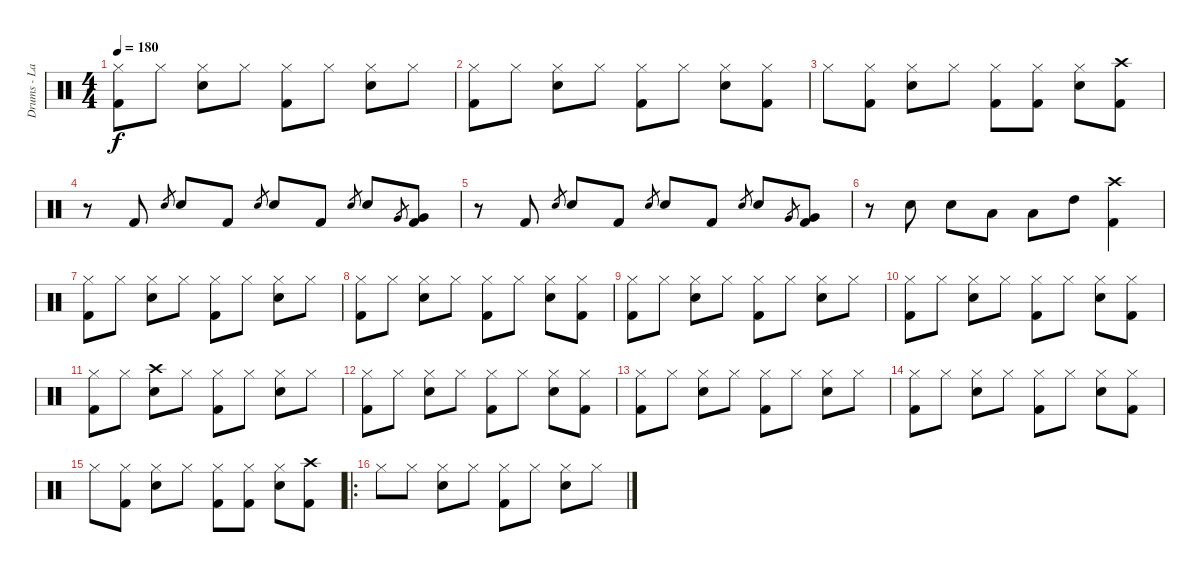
\track ("Drums - Lars" "Drums - La") {instrument percussion}
\staff {score}
\articulation defaults
\ts (4 4)
\tempo 180
\clef neutral
\ks c
("Hi-Hat (closed)" "Kick (hit) 2").8{dy f} "Hi-Hat (closed)".8 ("Hi-Hat (closed)" "Snare (hit) 2").8 "Hi-Hat (closed)".8 ("Hi-Hat (closed)" "Kick (hit) 2").8 "Hi-Hat (closed)".8 ("Hi-Hat (closed)" "Snare (hit) 2").8 "Hi-Hat (closed)".8 |
("Hi-Hat (closed)" "Kick (hit) 2").8 "Hi-Hat (closed)".8 ("Hi-Hat (closed)" "Snare (hit) 2").8 "Hi-Hat (closed)".8 ("Hi-Hat (closed)" "Kick (hit) 2").8 "Hi-Hat (closed)".8 ("Hi-Hat (closed)" "Snare (hit) 2").8 ("Hi-Hat (closed)" "Kick (hit) 2").8 |
"Hi-Hat (closed)".8 ("Hi-Hat (closed)" "Kick (hit) 2").8 ("Hi-Hat (closed)" "Snare (hit) 2").8 "Hi-Hat (closed)".8 ("Hi-Hat (closed)" "Kick (hit) 2").8 ("Hi-Hat (closed)" "Kick (hit) 2").8 ("Hi-Hat (closed)" "Snare (hit) 2").8 ("Crash high (hit)" "Kick (hit) 2").8 |
r.8 "Kick (hit) 2".8 "Snare (hit) 2".8{gr} "Snare (hit) 2".8 "Kick (hit) 2".8 "Snare (hit) 2".8{gr} "Snare (hit) 2".8 "Kick (hit) 2".8 "Snare (hit) 2".8{gr} "Snare (hit) 2".8 "Very Low Tom (hit)".8{gr} ("Very Low Tom (hit)" "Kick (hit) 2").8 |
r.8 "Kick (hit) 2".8 "Snare (hit) 2".8{gr} "Snare (hit) 2".8 "Kick (hit) 2".8 "Snare (hit) 2".8{gr} "Snare (hit) 2".8 "Kick (hit) 2".8 "Snare (hit) 2".8{gr} "Snare (hit) 2".8 "Very Low Tom (hit)".8{gr} ("Very Low Tom (hit)" "Kick (hit) 2").8 |
r.8 "Snare (hit) 2".8 "Snare (hit) 2".8 "Low Tom (hit)".8 "Low Tom (hit)".8 "High Tom (hit)".8 ("Crash high (hit)" "Kick (hit) 2").4 |
("Hi-Hat (closed)" "Kick (hit) 2").8 "Hi-Hat (closed)".8 ("Hi-Hat (closed)" "Snare (hit) 2").8 "Hi-Hat (closed)".8 ("Hi-Hat (closed)" "Kick (hit) 2").8 "Hi-Hat (closed)".8 ("Hi-Hat (closed)" "Snare (hit) 2").8 "Hi-Hat (closed)".8 |
("Hi-Hat (closed)" "Kick (hit) 2").8 "Hi-Hat (closed)".8 ("Hi-Hat (closed)" "Snare (hit) 2").8 "Hi-Hat (closed)".8 ("Hi-Hat (closed)" "Kick (hit) 2").8 "Hi-Hat (closed)".8 ("Hi-Hat (closed)" "Snare (hit) 2").8 ("Hi-Hat (closed)" "Kick (hit) 2").8 |
("Hi-Hat (closed)" "Kick (hit) 2").8 "Hi-Hat (closed)".8 ("Hi-Hat (closed)" "Snare (hit) 2").8 "Hi-Hat (closed)".8 ("Hi-Hat (closed)" "Kick (hit) 2").8 "Hi-Hat (closed)".8 ("Hi-Hat (closed)" "Snare (hit) 2").8 "Hi-Hat (closed)".8 |
("Hi-Hat (closed)" "Kick (hit) 2").8 "Hi-Hat (closed)".8 ("Hi-Hat (closed)" "Snare (hit) 2").8 "Hi-Hat (closed)".8 ("Hi-Hat (closed)" "Kick (hit) 2").8 "Hi-Hat (closed)".8 ("Hi-Hat (closed)" "Snare (hit) 2").8 ("Hi-Hat (closed)" "Kick (hit) 2").8 |
("Hi-Hat (closed)" "Kick (hit) 2").8 "Hi-Hat (closed)".8 ("Crash high (hit)" "Snare (hit) 2").8 "Hi-Hat (closed)".8 ("Hi-Hat (closed)" "Kick (hit) 2").8 "Hi-Hat (closed)".8 ("Hi-Hat (closed)" "Snare (hit) 2").8 "Hi-Hat (closed)".8 |
("Hi-Hat (closed)" "Kick (hit) 2").8 "Hi-Hat (closed)".8 ("Hi-Hat (closed)" "Snare (hit) 2").8 "Hi-Hat (closed)".8 ("Hi-Hat (closed)" "Kick (hit) 2").8 "Hi-Hat (closed)".8 ("Hi-Hat (closed)" "Snare (hit) 2").8 ("Hi-Hat (closed)" "Kick (hit) 2").8 |
("Hi-Hat (closed)" "Kick (hit) 2").8 "Hi-Hat (closed)".8 ("Hi-Hat (closed)" "Snare (hit) 2").8 "Hi-Hat (closed)".8 ("Hi-Hat (closed)" "Kick (hit) 2").8 "Hi-Hat (closed)".8 ("Hi-Hat (closed)" "Snare (hit) 2").8 "Hi-Hat (closed)".8 |
("Hi-Hat (closed)" "Kick (hit) 2").8 "Hi-Hat (closed)".8 ("Hi-Hat (closed)" "Snare (hit) 2").8 "Hi-Hat (closed)".8 ("Hi-Hat (closed)" "Kick (hit) 2").8 "Hi-Hat (closed)".8 ("Hi-Hat (closed)" "Snare (hit) 2").8 ("Hi-Hat (closed)" "Kick (hit) 2").8 |
"Hi-Hat (closed)".8 ("Hi-Hat (closed)" "Kick (hit) 2").8 ("Hi-Hat (closed)" "Snare (hit) 2").8 "Hi-Hat (closed)".8 ("Hi-Hat (closed)" "Kick (hit) 2").8 ("Hi-Hat (closed)" "Kick (hit) 2").8 ("Hi-Hat (closed)" "Snare (hit) 2").8 ("Crash high (hit)" "Kick (hit) 2").8 |
\ro "Hi-Hat (closed)".8 "Hi-Hat (closed)".8
("Hi-Hat (closed)" "Snare (hit) 2").8 "Hi-Hat (closed)".8 ("Hi-Hat (closed)" "Kick (hit) 2").8 "Hi-Hat (closed)".8 ("Hi-Hat (closed)" "Snare (hit) 2").8 "Hi-Hat (closed)".8
